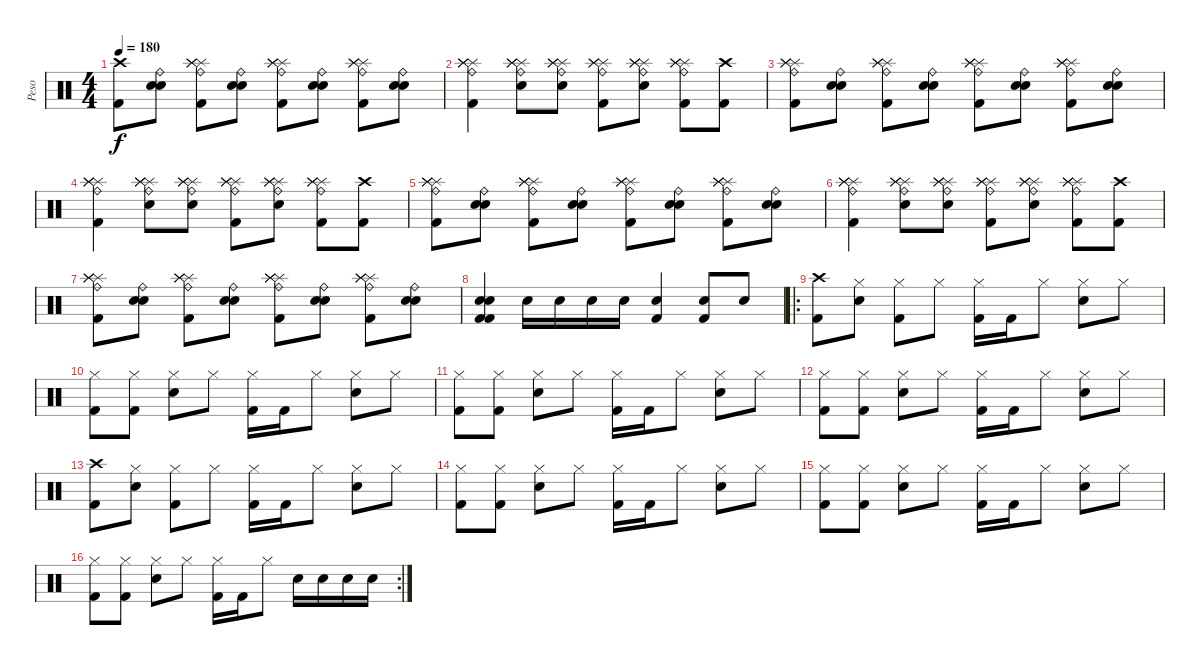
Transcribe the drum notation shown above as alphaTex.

\track ("Peso" "Peso") {instrument percussion}
\staff {score}
\articulation defaults
\ts (4 4)
\tempo 180
\clef neutral
\ks c
("Crash high (hit)" "Kick (hit) 2").8{dy f} ("Ride (bell)" "Snare (hit)"{x} "Snare (hit) 2").8 ("Splash (hit)" "Ride (bell)" "Splash (hit)" "Splash (hit)" "Splash (hit)" "Kick (hit) 2").8 ("Ride (bell)" "Snare (hit)"{x} "Snare (hit) 2").8 ("Splash (hit)" "Ride (bell)" "Splash (hit)" "Splash (hit)" "Splash (hit)" "Kick (hit) 2").8 ("Ride (bell)" "Snare (hit)"{x} "Snare (hit) 2").8 ("Splash (hit)" "Ride (bell)" "Splash (hit)" "Splash (hit)" "Splash (hit)" "Kick (hit) 2").8 ("Ride (bell)" "Snare (hit)"{x} "Snare (hit) 2").8 |
("Splash (hit)" "Ride (bell)" "Splash (hit)" "Splash (hit)" "Splash (hit)" "Kick (hit) 2").4 ("Splash (hit)" "Ride (bell)" "Snare (hit) 2" "Splash (hit)" "Splash (hit)" "Splash (hit)").8 ("Splash (hit)" "Ride (bell)" "Snare (hit) 2" "Splash (hit)" "Splash (hit)" "Splash (hit)").8 ("Splash (hit)" "Ride (bell)" "Splash (hit)" "Splash (hit)" "Splash (hit)" "Kick (hit) 2").8 ("Splash (hit)" "Ride (bell)" "Snare (hit) 2" "Splash (hit)" "Splash (hit)" "Splash (hit)").8 ("Splash (hit)" "Ride (bell)" "Splash (hit)" "Splash (hit)" "Splash (hit)" "Kick (hit) 2").8 ("Crash high (hit)" "Kick (hit) 2").8 |
("Splash (hit)" "Ride (bell)" "Splash (hit)" "Splash (hit)" "Splash (hit)" "Kick (hit) 2").8 ("Ride (bell)" "Snare (hit)"{x} "Snare (hit) 2").8 ("Splash (hit)" "Ride (bell)" "Splash (hit)" "Splash (hit)" "Splash (hit)" "Kick (hit) 2").8 ("Ride (bell)" "Snare (hit)"{x} "Snare (hit) 2").8 ("Splash (hit)" "Ride (bell)" "Splash (hit)" "Splash (hit)" "Splash (hit)" "Kick (hit) 2").8 ("Ride (bell)" "Snare (hit)"{x} "Snare (hit) 2").8 ("Splash (hit)" "Ride (bell)" "Splash (hit)" "Splash (hit)" "Splash (hit)" "Kick (hit) 2").8 ("Ride (bell)" "Snare (hit)"{x} "Snare (hit) 2").8 |
("Splash (hit)" "Ride (bell)" "Splash (hit)" "Splash (hit)" "Splash (hit)" "Kick (hit) 2").4 ("Splash (hit)" "Ride (bell)" "Snare (hit) 2" "Splash (hit)" "Splash (hit)" "Splash (hit)").8 ("Splash (hit)" "Ride (bell)" "Snare (hit) 2" "Splash (hit)" "Splash (hit)" "Splash (hit)").8 ("Splash (hit)" "Ride (bell)" "Splash (hit)" "Splash (hit)" "Splash (hit)" "Kick (hit) 2").8 ("Splash (hit)" "Ride (bell)" "Snare (hit) 2" "Splash (hit)" "Splash (hit)" "Splash (hit)").8 ("Splash (hit)" "Ride (bell)" "Splash (hit)" "Splash (hit)" "Splash (hit)" "Kick (hit) 2").8 ("Crash high (hit)" "Kick (hit) 2").8 |
("Splash (hit)" "Ride (bell)" "Splash (hit)" "Splash (hit)" "Splash (hit)" "Kick (hit) 2").8 ("Ride (bell)" "Snare (hit)"{x} "Snare (hit) 2").8 ("Splash (hit)" "Ride (bell)" "Splash (hit)" "Splash (hit)" "Splash (hit)" "Kick (hit) 2").8 ("Ride (bell)" "Snare (hit)"{x} "Snare (hit) 2").8 ("Splash (hit)" "Ride (bell)" "Splash (hit)" "Splash (hit)" "Splash (hit)" "Kick (hit) 2").8 ("Ride (bell)" "Snare (hit)"{x} "Snare (hit) 2").8 ("Splash (hit)" "Ride (bell)" "Splash (hit)" "Splash (hit)" "Splash (hit)" "Kick (hit) 2").8 ("Ride (bell)" "Snare (hit)"{x} "Snare (hit) 2").8 |
("Splash (hit)" "Ride (bell)" "Splash (hit)" "Splash (hit)" "Splash (hit)" "Kick (hit) 2").4 ("Splash (hit)" "Ride (bell)" "Snare (hit) 2" "Splash (hit)" "Splash (hit)" "Splash (hit)").8 ("Splash (hit)" "Ride (bell)" "Snare (hit) 2" "Splash (hit)" "Splash (hit)" "Splash (hit)").8 ("Splash (hit)" "Ride (bell)" "Splash (hit)" "Splash (hit)" "Splash (hit)" "Kick (hit) 2").8 ("Splash (hit)" "Ride (bell)" "Snare (hit) 2" "Splash (hit)" "Splash (hit)" "Splash (hit)").8 ("Splash (hit)" "Ride (bell)" "Splash (hit)" "Splash (hit)" "Splash (hit)" "Kick (hit) 2").8 ("Crash high (hit)" "Kick (hit) 2").8 |
("Splash (hit)" "Ride (bell)" "Splash (hit)" "Splash (hit)" "Splash (hit)" "Kick (hit) 2").8 ("Ride (bell)" "Snare (hit)"{x} "Snare (hit) 2").8 ("Splash (hit)" "Ride (bell)" "Splash (hit)" "Splash (hit)" "Splash (hit)" "Kick (hit) 2").8 ("Ride (bell)" "Snare (hit)"{x} "Snare (hit) 2").8 ("Splash (hit)" "Ride (bell)" "Splash (hit)" "Splash (hit)" "Splash (hit)" "Kick (hit) 2").8 ("Ride (bell)" "Snare (hit)"{x} "Snare (hit) 2").8 ("Splash (hit)" "Ride (bell)" "Splash (hit)" "Splash (hit)" "Splash (hit)" "Kick (hit) 2").8 ("Ride (bell)" "Snare (hit)"{x} "Snare (hit) 2").8 |
("Snare (hit) 2" "Snare (hit) 2" "Kick (hit) 2" "Kick (hit) 2").4 "Snare (hit) 2".16 "Snare (hit) 2".16 "Snare (hit) 2".16 "Snare (hit) 2".16 ("Snare (hit) 2" "Kick (hit) 2").4 ("Snare (hit) 2" "Kick (hit) 2").8 "Snare (hit) 2".8 |
\ro
("Crash high (hit)" "Kick (hit) 2").8 ("Hi-Hat (closed)" "Snare (hit) 2").8 ("Hi-Hat (closed)" "Kick (hit) 2").8 "Hi-Hat (closed)".8 ("Hi-Hat (closed)" "Kick (hit) 2").16 "Kick (hit) 2".16 "Hi-Hat (closed)".8 ("Hi-Hat (closed)" "Snare (hit) 2").8 "Hi-Hat (closed)".8 |
("Hi-Hat (closed)" "Kick (hit) 2").8 ("Hi-Hat (closed)" "Kick (hit) 2").8 ("Hi-Hat (closed)" "Snare (hit) 2").8 "Hi-Hat (closed)".8 ("Hi-Hat (closed)" "Kick (hit) 2").16 "Kick (hit) 2".16 "Hi-Hat (closed)".8 ("Hi-Hat (closed)" "Snare (hit) 2").8 "Hi-Hat (closed)".8 |
("Hi-Hat (closed)" "Kick (hit) 2").8 ("Hi-Hat (closed)" "Kick (hit) 2").8 ("Hi-Hat (closed)" "Snare (hit) 2").8 "Hi-Hat (closed)".8 ("Hi-Hat (closed)" "Kick (hit) 2").16 "Kick (hit) 2".16 "Hi-Hat (closed)".8 ("Hi-Hat (closed)" "Snare (hit) 2").8 "Hi-Hat (closed)".8 |
("Hi-Hat (closed)" "Kick (hit) 2").8 ("Hi-Hat (closed)" "Kick (hit) 2").8 ("Hi-Hat (closed)" "Snare (hit) 2").8 "Hi-Hat (closed)".8 ("Hi-Hat (closed)" "Kick (hit) 2").16 "Kick (hit) 2".16 "Hi-Hat (closed)".8 ("Hi-Hat (closed)" "Snare (hit) 2").8 "Hi-Hat (closed)".8 |
("Crash high (hit)" "Kick (hit) 2").8 ("Hi-Hat (closed)" "Snare (hit) 2").8 ("Hi-Hat (closed)" "Kick (hit) 2").8 "Hi-Hat (closed)".8 ("Hi-Hat (closed)" "Kick (hit) 2").16 "Kick (hit) 2".16 "Hi-Hat (closed)".8 ("Hi-Hat (closed)" "Snare (hit) 2").8 "Hi-Hat (closed)".8 |
("Hi-Hat (closed)" "Kick (hit) 2").8 ("Hi-Hat (closed)" "Kick (hit) 2").8 ("Hi-Hat (closed)" "Snare (hit) 2").8 "Hi-Hat (closed)".8 ("Hi-Hat (closed)" "Kick (hit) 2").16 "Kick (hit) 2".16 "Hi-Hat (closed)".8 ("Hi-Hat (closed)" "Snare (hit) 2").8 "Hi-Hat (closed)".8 |
("Hi-Hat (closed)" "Kick (hit) 2").8 ("Hi-Hat (closed)" "Kick (hit) 2").8 ("Hi-Hat (closed)" "Snare (hit) 2").8 "Hi-Hat (closed)".8 ("Hi-Hat (closed)" "Kick (hit) 2").16 "Kick (hit) 2".16 "Hi-Hat (closed)".8 ("Hi-Hat (closed)" "Snare (hit) 2").8 "Hi-Hat (closed)".8 |
\rc 2
("Hi-Hat (closed)" "Kick (hit) 2").8 ("Hi-Hat (closed)" "Kick (hit) 2").8 ("Hi-Hat (closed)" "Snare (hit) 2").8 "Hi-Hat (closed)".8 ("Hi-Hat (closed)" "Kick (hit) 2").16 "Kick (hit) 2".16 "Hi-Hat (closed)".8 "Snare (hit) 2".16 "Snare (hit) 2".16 "Snare (hit) 2".16 "Snare (hit) 2".16
